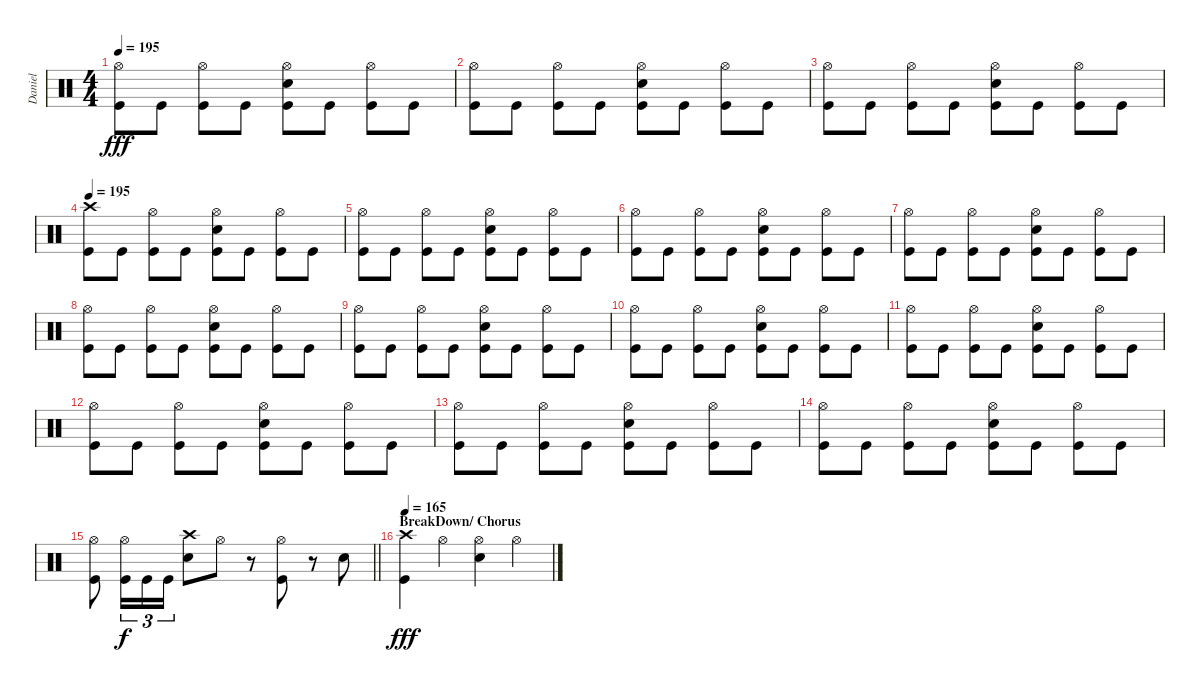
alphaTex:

\track ("Daniel" "Daniel") {instrument percussion}
\staff {score}
\articulation defaults
\ts (4 4)
\tempo 195
\clef neutral
\ks c
("Hi-Hat (open)" "Kick (hit)").8{dy fff} "Kick (hit)".8 ("Hi-Hat (open)" "Kick (hit)").8 "Kick (hit)".8 ("Hi-Hat (open)" "Snare (hit) 2" "Kick (hit)").8 "Kick (hit)".8 ("Hi-Hat (open)" "Kick (hit)").8 "Kick (hit)".8 |
("Hi-Hat (open)" "Kick (hit)").8 "Kick (hit)".8 ("Hi-Hat (open)" "Kick (hit)").8 "Kick (hit)".8 ("Hi-Hat (open)" "Snare (hit) 2" "Kick (hit)").8 "Kick (hit)".8 ("Hi-Hat (open)" "Kick (hit)").8 "Kick (hit)".8 |
("Hi-Hat (open)" "Kick (hit)").8 "Kick (hit)".8 ("Hi-Hat (open)" "Kick (hit)").8 "Kick (hit)".8 ("Hi-Hat (open)" "Snare (hit) 2" "Kick (hit)").8 "Kick (hit)".8 ("Hi-Hat (open)" "Kick (hit)").8 "Kick (hit)".8 |
\tempo 195
("Crash high (hit)" "Kick (hit)").8 "Kick (hit)".8 ("Hi-Hat (open)" "Kick (hit)").8 "Kick (hit)".8 ("Hi-Hat (open)" "Snare (hit) 2" "Kick (hit)").8 "Kick (hit)".8 ("Hi-Hat (open)" "Kick (hit)").8 "Kick (hit)".8 |
("Hi-Hat (open)" "Kick (hit)").8 "Kick (hit)".8 ("Hi-Hat (open)" "Kick (hit)").8 "Kick (hit)".8 ("Hi-Hat (open)" "Snare (hit) 2" "Kick (hit)").8 "Kick (hit)".8 ("Hi-Hat (open)" "Kick (hit)").8 "Kick (hit)".8 |
("Hi-Hat (open)" "Kick (hit)").8 "Kick (hit)".8 ("Hi-Hat (open)" "Kick (hit)").8 "Kick (hit)".8 ("Hi-Hat (open)" "Snare (hit) 2" "Kick (hit)").8 "Kick (hit)".8 ("Hi-Hat (open)" "Kick (hit)").8 "Kick (hit)".8 |
("Hi-Hat (open)" "Kick (hit)").8 "Kick (hit)".8 ("Hi-Hat (open)" "Kick (hit)").8 "Kick (hit)".8 ("Hi-Hat (open)" "Snare (hit) 2" "Kick (hit)").8 "Kick (hit)".8 ("Hi-Hat (open)" "Kick (hit)").8 "Kick (hit)".8 |
("Hi-Hat (open)" "Kick (hit)").8 "Kick (hit)".8 ("Hi-Hat (open)" "Kick (hit)").8 "Kick (hit)".8 ("Hi-Hat (open)" "Snare (hit) 2" "Kick (hit)").8 "Kick (hit)".8 ("Hi-Hat (open)" "Kick (hit)").8 "Kick (hit)".8 |
("Hi-Hat (open)" "Kick (hit)").8 "Kick (hit)".8 ("Hi-Hat (open)" "Kick (hit)").8 "Kick (hit)".8 ("Hi-Hat (open)" "Snare (hit) 2" "Kick (hit)").8 "Kick (hit)".8 ("Hi-Hat (open)" "Kick (hit)").8 "Kick (hit)".8 |
("Hi-Hat (open)" "Kick (hit)").8 "Kick (hit)".8 ("Hi-Hat (open)" "Kick (hit)").8 "Kick (hit)".8 ("Hi-Hat (open)" "Snare (hit) 2" "Kick (hit)").8 "Kick (hit)".8 ("Hi-Hat (open)" "Kick (hit)").8 "Kick (hit)".8 |
("Hi-Hat (open)" "Kick (hit)").8 "Kick (hit)".8 ("Hi-Hat (open)" "Kick (hit)").8 "Kick (hit)".8 ("Hi-Hat (open)" "Snare (hit) 2" "Kick (hit)").8 "Kick (hit)".8 ("Hi-Hat (open)" "Kick (hit)").8 "Kick (hit)".8 |
("Hi-Hat (open)" "Kick (hit)").8 "Kick (hit)".8 ("Hi-Hat (open)" "Kick (hit)").8 "Kick (hit)".8 ("Hi-Hat (open)" "Snare (hit) 2" "Kick (hit)").8 "Kick (hit)".8 ("Hi-Hat (open)" "Kick (hit)").8 "Kick (hit)".8 |
("Hi-Hat (open)" "Kick (hit)").8 "Kick (hit)".8 ("Hi-Hat (open)" "Kick (hit)").8 "Kick (hit)".8 ("Hi-Hat (open)" "Snare (hit) 2" "Kick (hit)").8 "Kick (hit)".8 ("Hi-Hat (open)" "Kick (hit)").8 "Kick (hit)".8 |
("Hi-Hat (open)" "Kick (hit)").8 "Kick (hit)".8 ("Hi-Hat (open)" "Kick (hit)").8 "Kick (hit)".8 ("Hi-Hat (open)" "Snare (hit) 2" "Kick (hit)").8 "Kick (hit)".8 ("Hi-Hat (open)" "Kick (hit)").8 "Kick (hit)".8 |
\barLineRight lightlight
("Hi-Hat (open)" "Kick (hit)").8 ("Hi-Hat (open)" "Kick (hit)").16{tu (3 2) dy f} "Kick (hit)".16{tu (3 2)} "Kick (hit)".16{tu (3 2)} ("Crash high (hit)" "Snare (hit) 2").8 "Hi-Hat (open)".8 r.8 ("Hi-Hat (open)" "Kick (hit)").8 r.8 "Snare (hit) 2".8 |
\section ("" "BreakDown/ Chorus")
\tempo 165
("Crash high (hit)" "Kick (hit)").4{dy fff} "Hi-Hat (open)".4 ("Hi-Hat (open)" "Snare (hit) 2").4 "Hi-Hat (open)".4
